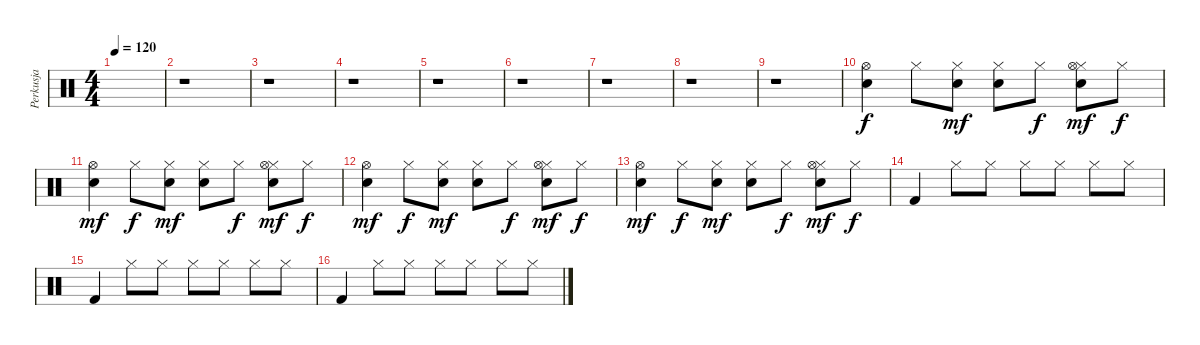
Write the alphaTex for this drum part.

\track ("Perkusja" "Perkusja") {instrument percussion}
\staff {score}
\articulation defaults
\ts (4 4)
\tempo 120
\clef neutral
\ks c
|
r.1 |
r.1 |
r.1 |
r.1 |
r.1 |
r.1 |
r.1 |
r.1 |
("Snare (hit) 2" "Hi-Hat (open)").4 "Hi-Hat (closed)".8{dy f} ("Hi-Hat (closed)" "Snare (hit) 2").8{dy mf} ("Hi-Hat (closed)" "Snare (hit) 2").8 "Hi-Hat (closed)".8{dy f} ("Hi-Hat (closed)" "Snare (hit) 2" "Hi-Hat (open)").8{dy mf} "Hi-Hat (closed)".8{dy f} |
("Snare (hit) 2" "Hi-Hat (open)").4{dy mf} "Hi-Hat (closed)".8{dy f} ("Hi-Hat (closed)" "Snare (hit) 2").8{dy mf} ("Hi-Hat (closed)" "Snare (hit) 2").8 "Hi-Hat (closed)".8{dy f} ("Hi-Hat (closed)" "Snare (hit) 2" "Hi-Hat (open)").8{dy mf} "Hi-Hat (closed)".8{dy f} |
("Snare (hit) 2" "Hi-Hat (open)").4{dy mf} "Hi-Hat (closed)".8{dy f} ("Hi-Hat (closed)" "Snare (hit) 2").8{dy mf} ("Hi-Hat (closed)" "Snare (hit) 2").8 "Hi-Hat (closed)".8{dy f} ("Hi-Hat (closed)" "Snare (hit) 2" "Hi-Hat (open)").8{dy mf} "Hi-Hat (closed)".8{dy f} |
("Snare (hit) 2" "Hi-Hat (open)").4{dy mf} "Hi-Hat (closed)".8{dy f} ("Hi-Hat (closed)" "Snare (hit) 2").8{dy mf} ("Hi-Hat (closed)" "Snare (hit) 2").8 "Hi-Hat (closed)".8{dy f} ("Hi-Hat (closed)" "Snare (hit) 2" "Hi-Hat (open)").8{dy mf} "Hi-Hat (closed)".8{dy f} |
"Kick (hit) 2".4 "Hi-Hat (closed)".8 "Hi-Hat (closed)".8 "Hi-Hat (closed)".8 "Hi-Hat (closed)".8 "Hi-Hat (closed)".8 "Hi-Hat (closed)".8 |
"Kick (hit) 2".4 "Hi-Hat (closed)".8 "Hi-Hat (closed)".8 "Hi-Hat (closed)".8 "Hi-Hat (closed)".8 "Hi-Hat (closed)".8 "Hi-Hat (closed)".8 |
"Kick (hit) 2".4 "Hi-Hat (closed)".8 "Hi-Hat (closed)".8 "Hi-Hat (closed)".8 "Hi-Hat (closed)".8 "Hi-Hat (closed)".8 "Hi-Hat (closed)".8
